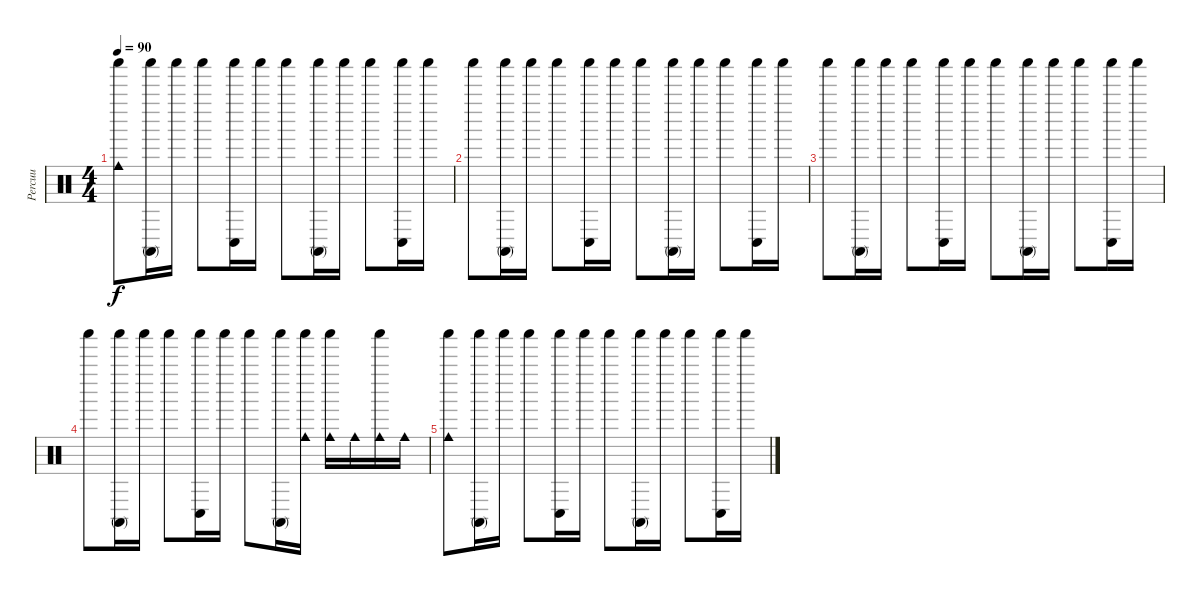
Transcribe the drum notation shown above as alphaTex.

\track ("Percuu" "Percuu") {instrument percussion}
\staff {score}
\articulation defaults
\ts (4 4)
\tempo 90
\clef neutral
\ks c
("Cowbell medium (hit)" "Shaker (hit)").8{dy f} ("Conga high (mute)" "Shaker (hit)").16 "Shaker (hit)".16 "Shaker (hit)".8 ("Conga low (hit)" "Shaker (hit)").16 "Shaker (hit)".16 "Shaker (hit)".8 ("Conga high (mute)" "Shaker (hit)").16 "Shaker (hit)".16 "Shaker (hit)".8 ("Conga low (hit)" "Shaker (hit)").16 "Shaker (hit)".16 |
"Shaker (hit)".8{volume 0} ("Conga high (mute)" "Shaker (hit)").16 "Shaker (hit)".16 "Shaker (hit)".8 ("Conga low (hit)" "Shaker (hit)").16 "Shaker (hit)".16 "Shaker (hit)".8 ("Conga high (mute)" "Shaker (hit)").16 "Shaker (hit)".16 "Shaker (hit)".8 ("Conga low (hit)" "Shaker (hit)").16 "Shaker (hit)".16 |
"Shaker (hit)".8 ("Conga high (mute)" "Shaker (hit)").16 "Shaker (hit)".16 "Shaker (hit)".8 ("Conga low (hit)" "Shaker (hit)").16 "Shaker (hit)".16 "Shaker (hit)".8 ("Conga high (mute)" "Shaker (hit)").16 "Shaker (hit)".16 "Shaker (hit)".8 ("Conga low (hit)" "Shaker (hit)").16 "Shaker (hit)".16 |
"Shaker (hit)".8 ("Conga high (mute)" "Shaker (hit)").16 "Shaker (hit)".16 "Shaker (hit)".8 ("Conga low (hit)" "Shaker (hit)").16 "Shaker (hit)".16 "Shaker (hit)".8 ("Conga high (mute)" "Shaker (hit)").16 ("Cowbell medium (hit)" "Shaker (hit)").16 ("Cowbell medium (hit)" "Shaker (hit)").16 "Cowbell medium (hit)".16 ("Cowbell medium (hit)" "Shaker (hit)").16 "Cowbell medium (hit)".16 |
("Cowbell medium (hit)" "Shaker (hit)").8 ("Conga high (mute)" "Shaker (hit)").16 "Shaker (hit)".16 "Shaker (hit)".8 ("Conga low (hit)" "Shaker (hit)").16 "Shaker (hit)".16 "Shaker (hit)".8 ("Conga high (mute)" "Shaker (hit)").16 "Shaker (hit)".16 "Shaker (hit)".8 ("Conga low (hit)" "Shaker (hit)").16 "Shaker (hit)".16
